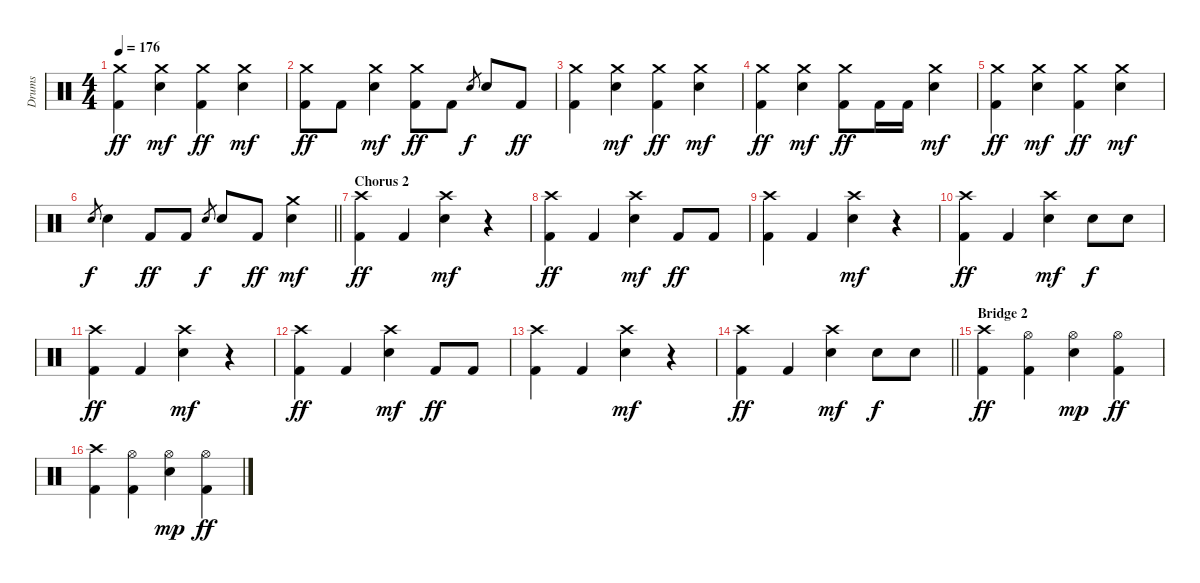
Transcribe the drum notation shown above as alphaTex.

\track ("Drums" "Drums") {instrument percussion}
\staff {score}
\articulation defaults
\ts (4 4)
\tempo 176
\clef neutral
\ks c
("Crash medium (hit)" "Kick (hit) 2").4{dy ff} ("Crash medium (hit)" "Electric Snare (hit)").4{dy mf} ("Crash medium (hit)" "Kick (hit) 2").4{dy ff} ("Crash medium (hit)" "Electric Snare (hit)").4{dy mf} |
("Crash medium (hit)" "Kick (hit) 2").8{dy ff} "Kick (hit) 2".8 ("Crash medium (hit)" "Electric Snare (hit)").4{dy mf} ("Crash medium (hit)" "Kick (hit) 2").8{dy ff} "Kick (hit) 2".8 "Electric Snare (hit)".8{gr dy f} "Electric Snare (hit)".8 "Kick (hit) 2".8{dy ff} |
("Crash medium (hit)" "Kick (hit) 2").4 ("Crash medium (hit)" "Electric Snare (hit)").4{dy mf} ("Crash medium (hit)" "Kick (hit) 2").4{dy ff} ("Crash medium (hit)" "Electric Snare (hit)").4{dy mf} |
("Crash medium (hit)" "Kick (hit) 2").4{dy ff} ("Crash medium (hit)" "Electric Snare (hit)").4{dy mf} ("Crash medium (hit)" "Kick (hit) 2").8{dy ff} "Kick (hit) 2".16 "Kick (hit) 2".16 ("Crash medium (hit)" "Electric Snare (hit)").4{dy mf} |
("Crash medium (hit)" "Kick (hit) 2").4{dy ff} ("Crash medium (hit)" "Electric Snare (hit)").4{dy mf} ("Crash medium (hit)" "Kick (hit) 2").4{dy ff} ("Crash medium (hit)" "Electric Snare (hit)").4{dy mf} |
\barLineRight lightlight "Electric Snare (hit)".8{gr dy f} "Electric Snare (hit)".4 "Kick (hit) 2".8{dy ff} "Kick (hit) 2".8 "Electric Snare (hit)".8{gr dy f} "Electric Snare (hit)".8 "Kick (hit) 2".8{dy ff}
("Crash medium (hit)" "Electric Snare (hit)").4{dy mf} |
\section ("" "Chorus 2")
("Crash high (hit)" "Kick (hit) 2").4{dy ff} "Kick (hit) 2".4 ("Crash high (hit)" "Electric Snare (hit)").4{dy mf} r.4 |
("Crash high (hit)" "Kick (hit) 2").4{dy ff} "Kick (hit) 2".4 ("Crash high (hit)" "Electric Snare (hit)").4{dy mf} "Kick (hit) 2".8{dy ff} "Kick (hit) 2".8 |
("Crash high (hit)" "Kick (hit) 2").4 "Kick (hit) 2".4 ("Crash high (hit)" "Electric Snare (hit)").4{dy mf} r.4 |
("Crash high (hit)" "Kick (hit) 2").4{dy ff} "Kick (hit) 2".4 ("Crash high (hit)" "Electric Snare (hit)").4{dy mf} "Electric Snare (hit)".8{dy f} "Electric Snare (hit)".8 |
("Crash high (hit)" "Kick (hit) 2").4{dy ff} "Kick (hit) 2".4 ("Crash high (hit)" "Electric Snare (hit)").4{dy mf} r.4 |
("Crash high (hit)" "Kick (hit) 2").4{dy ff} "Kick (hit) 2".4 ("Crash high (hit)" "Electric Snare (hit)").4{dy mf} "Kick (hit) 2".8{dy ff} "Kick (hit) 2".8 |
("Crash high (hit)" "Kick (hit) 2").4 "Kick (hit) 2".4 ("Crash high (hit)" "Electric Snare (hit)").4{dy mf} r.4 |
\barLineRight lightlight
("Crash high (hit)" "Kick (hit) 2").4{dy ff} "Kick (hit) 2".4 ("Crash high (hit)" "Electric Snare (hit)").4{dy mf} "Electric Snare (hit)".8{dy f} "Electric Snare (hit)".8 |
\section ("" "Bridge 2")
("Crash high (hit)" "Kick (hit) 2").4{dy ff} ("Hi-Hat (open)" "Kick (hit) 2").4 ("Hi-Hat (open)" "Electric Snare (hit)").4{dy mp} ("Hi-Hat (open)" "Kick (hit) 2").4{dy ff} |
("Crash high (hit)" "Kick (hit) 2").4 ("Hi-Hat (open)" "Kick (hit) 2").4 ("Hi-Hat (open)" "Electric Snare (hit)").4{dy mp} ("Hi-Hat (open)" "Kick (hit) 2").4{dy ff}
